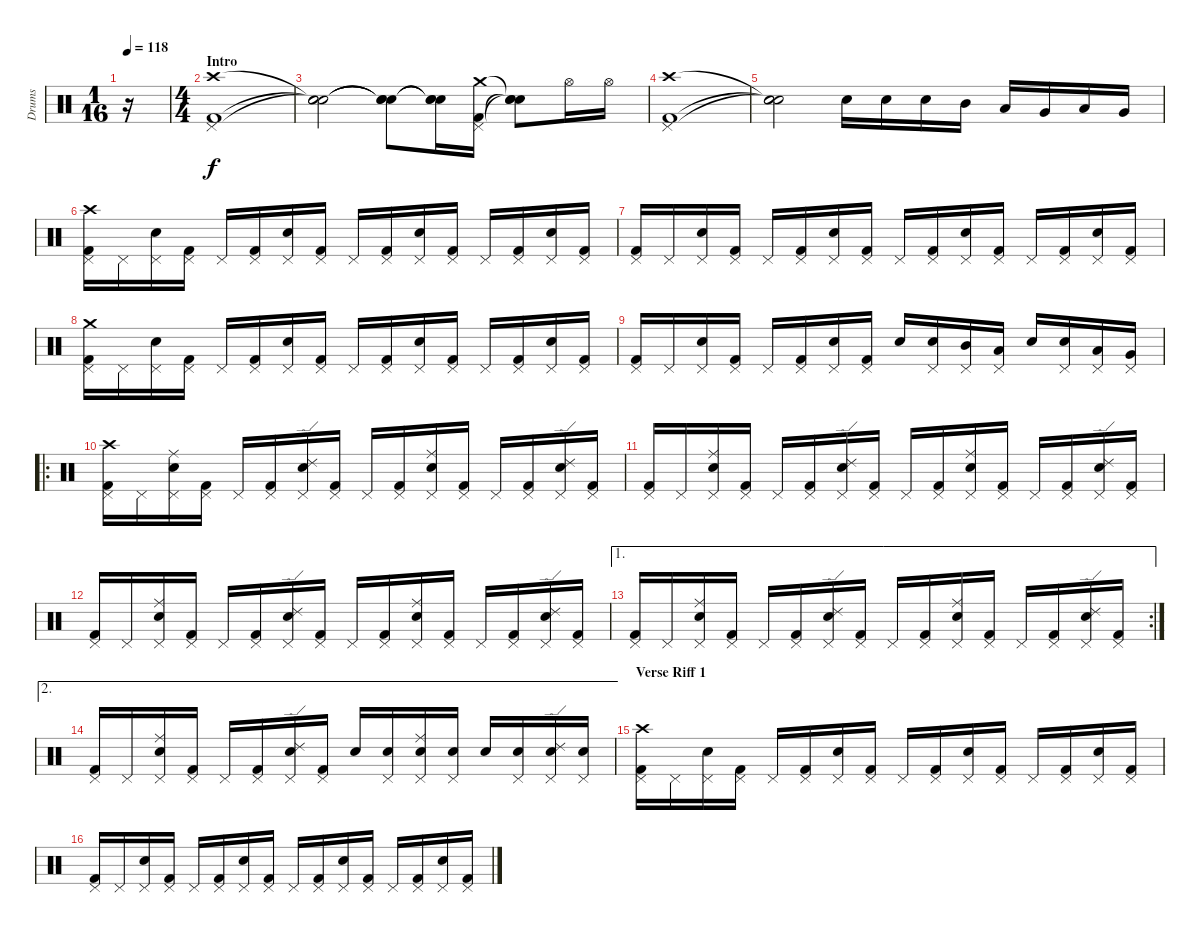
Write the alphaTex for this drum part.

\track ("Drums" "Drums") {instrument percussion}
\staff {score}
\articulation defaults
\ts (1 16)
\tempo 118
\clef neutral
\ks c
r.16{dy f} |
\ts (4 4)
\section ("" "Intro")
("Kick (hit) 2" "Pedal Hi-Hat (hit)" "Crash high (hit)").1 |
("Snare (hit)"{t} "Snare (hit)"{t} "Snare (hit)"{t}).2 ("Snare (hit)"{t} "Snare (hit)"{t} "Snare (hit)"{t}).8 ("Snare (hit)"{t} "Snare (hit)"{t} "Snare (hit)"{t}).16 ("Kick (hit) 2" "Pedal Hi-Hat (hit)" "Crash medium (hit)").16 ("Snare (hit)"{t} "Snare (hit)"{t} "Snare (hit)"{t}).8 "Hi-Hat (open)".16 "Hi-Hat (open)".16 |
("Kick (hit) 2" "Pedal Hi-Hat (hit)" "Crash high (hit)").1 |
("Snare (hit)"{t} "Snare (hit)"{t} "Snare (hit)"{t}).2 "Snare (hit) 2".16 "Snare (hit) 2".16 "Snare (hit) 2".16 "Mid Tom (hit)".16 "Low Tom (hit)".16 "Very Low Tom (hit)".16 "Low Floor Tom (hit)".16 "Very Low Tom (hit)".16 |
("Kick (hit) 2" "Pedal Hi-Hat (hit)" "Crash high (hit)").16 "Pedal Hi-Hat (hit)".16 ("Snare (hit) 2" "Pedal Hi-Hat (hit)").16 ("Kick (hit) 2" "Pedal Hi-Hat (hit)").16 "Pedal Hi-Hat (hit)".16 ("Kick (hit) 2" "Pedal Hi-Hat (hit)").16 ("Snare (hit) 2" "Pedal Hi-Hat (hit)").16 ("Kick (hit) 2" "Pedal Hi-Hat (hit)").16 "Pedal Hi-Hat (hit)".16 ("Kick (hit) 2" "Pedal Hi-Hat (hit)").16 ("Snare (hit) 2" "Pedal Hi-Hat (hit)").16 ("Kick (hit) 2" "Pedal Hi-Hat (hit)").16 "Pedal Hi-Hat (hit)".16 ("Kick (hit) 2" "Pedal Hi-Hat (hit)").16 ("Snare (hit) 2" "Pedal Hi-Hat (hit)").16 ("Kick (hit) 2" "Pedal Hi-Hat (hit)").16 |
("Kick (hit) 2" "Pedal Hi-Hat (hit)").16 "Pedal Hi-Hat (hit)".16 ("Snare (hit) 2" "Pedal Hi-Hat (hit)").16 ("Kick (hit) 2" "Pedal Hi-Hat (hit)").16 "Pedal Hi-Hat (hit)".16 ("Kick (hit) 2" "Pedal Hi-Hat (hit)").16 ("Snare (hit) 2" "Pedal Hi-Hat (hit)").16 ("Kick (hit) 2" "Pedal Hi-Hat (hit)").16 "Pedal Hi-Hat (hit)".16 ("Kick (hit) 2" "Pedal Hi-Hat (hit)").16 ("Snare (hit) 2" "Pedal Hi-Hat (hit)").16 ("Kick (hit) 2" "Pedal Hi-Hat (hit)").16 "Pedal Hi-Hat (hit)".16 ("Kick (hit) 2" "Pedal Hi-Hat (hit)").16 ("Snare (hit) 2" "Pedal Hi-Hat (hit)").16 ("Kick (hit) 2" "Pedal Hi-Hat (hit)").16 |
("Kick (hit) 2" "Pedal Hi-Hat (hit)" "Crash medium (hit)").16 "Pedal Hi-Hat (hit)".16 ("Snare (hit) 2" "Pedal Hi-Hat (hit)").16 ("Kick (hit) 2" "Pedal Hi-Hat (hit)").16 "Pedal Hi-Hat (hit)".16 ("Kick (hit) 2" "Pedal Hi-Hat (hit)").16 ("Snare (hit) 2" "Pedal Hi-Hat (hit)").16 ("Kick (hit) 2" "Pedal Hi-Hat (hit)").16 "Pedal Hi-Hat (hit)".16 ("Kick (hit) 2" "Pedal Hi-Hat (hit)").16 ("Snare (hit) 2" "Pedal Hi-Hat (hit)").16 ("Kick (hit) 2" "Pedal Hi-Hat (hit)").16 "Pedal Hi-Hat (hit)".16 ("Kick (hit) 2" "Pedal Hi-Hat (hit)").16 ("Snare (hit) 2" "Pedal Hi-Hat (hit)").16 ("Kick (hit) 2" "Pedal Hi-Hat (hit)").16 |
("Kick (hit) 2" "Pedal Hi-Hat (hit)").16 "Pedal Hi-Hat (hit)".16 ("Snare (hit) 2" "Pedal Hi-Hat (hit)").16 ("Kick (hit) 2" "Pedal Hi-Hat (hit)").16 "Pedal Hi-Hat (hit)".16 ("Kick (hit) 2" "Pedal Hi-Hat (hit)").16 ("Snare (hit) 2" "Pedal Hi-Hat (hit)").16 ("Kick (hit) 2" "Pedal Hi-Hat (hit)").16 "Snare (hit) 2".16 ("Snare (hit) 2" "Pedal Hi-Hat (hit)").16 ("Mid Tom (hit)" "Pedal Hi-Hat (hit)").16 ("Low Tom (hit)" "Pedal Hi-Hat (hit)").16 "Snare (hit) 2".16 ("Snare (hit) 2" "Pedal Hi-Hat (hit)").16 ("Low Tom (hit)" "Pedal Hi-Hat (hit)").16 ("Very Low Tom (hit)" "Pedal Hi-Hat (hit)").16 |
\ro
("Kick (hit) 2" "Pedal Hi-Hat (hit)" "Crash high (hit)").16 "Pedal Hi-Hat (hit)".16 ("Snare (hit) 2" "Pedal Hi-Hat (hit)" "Ride (middle)").16 ("Kick (hit) 2" "Pedal Hi-Hat (hit)").16 "Pedal Hi-Hat (hit)".16 ("Kick (hit) 2" "Pedal Hi-Hat (hit)").16 ("Snare (hit) 2" "Pedal Hi-Hat (hit)" "Ride (edge) 2").16 ("Kick (hit) 2" "Pedal Hi-Hat (hit)").16 "Pedal Hi-Hat (hit)".16 ("Kick (hit) 2" "Pedal Hi-Hat (hit)").16 ("Snare (hit) 2" "Pedal Hi-Hat (hit)" "Ride (middle)").16 ("Kick (hit) 2" "Pedal Hi-Hat (hit)").16 "Pedal Hi-Hat (hit)".16 ("Kick (hit) 2" "Pedal Hi-Hat (hit)").16 ("Snare (hit) 2" "Pedal Hi-Hat (hit)" "Ride (edge) 2").16 ("Kick (hit) 2" "Pedal Hi-Hat (hit)").16 |
("Kick (hit) 2" "Pedal Hi-Hat (hit)").16 "Pedal Hi-Hat (hit)".16 ("Snare (hit) 2" "Pedal Hi-Hat (hit)" "Ride (middle)").16 ("Kick (hit) 2" "Pedal Hi-Hat (hit)").16 "Pedal Hi-Hat (hit)".16 ("Kick (hit) 2" "Pedal Hi-Hat (hit)").16 ("Snare (hit) 2" "Pedal Hi-Hat (hit)" "Ride (edge) 2").16 ("Kick (hit) 2" "Pedal Hi-Hat (hit)").16 "Pedal Hi-Hat (hit)".16 ("Kick (hit) 2" "Pedal Hi-Hat (hit)").16 ("Snare (hit) 2" "Pedal Hi-Hat (hit)" "Ride (middle)").16 ("Kick (hit) 2" "Pedal Hi-Hat (hit)").16 "Pedal Hi-Hat (hit)".16 ("Kick (hit) 2" "Pedal Hi-Hat (hit)").16 ("Snare (hit) 2" "Pedal Hi-Hat (hit)" "Ride (edge) 2").16 ("Kick (hit) 2" "Pedal Hi-Hat (hit)").16 |
("Kick (hit) 2" "Pedal Hi-Hat (hit)").16 "Pedal Hi-Hat (hit)".16 ("Snare (hit) 2" "Pedal Hi-Hat (hit)" "Ride (middle)").16 ("Kick (hit) 2" "Pedal Hi-Hat (hit)").16 "Pedal Hi-Hat (hit)".16 ("Kick (hit) 2" "Pedal Hi-Hat (hit)").16 ("Snare (hit) 2" "Pedal Hi-Hat (hit)" "Ride (edge) 2").16 ("Kick (hit) 2" "Pedal Hi-Hat (hit)").16 "Pedal Hi-Hat (hit)".16 ("Kick (hit) 2" "Pedal Hi-Hat (hit)").16 ("Snare (hit) 2" "Pedal Hi-Hat (hit)" "Ride (middle)").16 ("Kick (hit) 2" "Pedal Hi-Hat (hit)").16 "Pedal Hi-Hat (hit)".16 ("Kick (hit) 2" "Pedal Hi-Hat (hit)").16 ("Snare (hit) 2" "Pedal Hi-Hat (hit)" "Ride (edge) 2").16 ("Kick (hit) 2" "Pedal Hi-Hat (hit)").16 |
\ae 1
\rc 2
("Kick (hit) 2" "Pedal Hi-Hat (hit)").16 "Pedal Hi-Hat (hit)".16 ("Snare (hit) 2" "Pedal Hi-Hat (hit)" "Ride (middle)").16 ("Kick (hit) 2" "Pedal Hi-Hat (hit)").16 "Pedal Hi-Hat (hit)".16 ("Kick (hit) 2" "Pedal Hi-Hat (hit)").16 ("Snare (hit) 2" "Pedal Hi-Hat (hit)" "Ride (edge) 2").16 ("Kick (hit) 2" "Pedal Hi-Hat (hit)").16 "Pedal Hi-Hat (hit)".16 ("Kick (hit) 2" "Pedal Hi-Hat (hit)").16 ("Snare (hit) 2" "Pedal Hi-Hat (hit)" "Ride (middle)").16 ("Kick (hit) 2" "Pedal Hi-Hat (hit)").16 "Pedal Hi-Hat (hit)".16 ("Kick (hit) 2" "Pedal Hi-Hat (hit)").16 ("Snare (hit) 2" "Pedal Hi-Hat (hit)" "Ride (edge) 2").16 ("Kick (hit) 2" "Pedal Hi-Hat (hit)").16 |
\ae 2
("Kick (hit) 2" "Pedal Hi-Hat (hit)").16 "Pedal Hi-Hat (hit)".16 ("Snare (hit) 2" "Pedal Hi-Hat (hit)" "Ride (middle)").16 ("Kick (hit) 2" "Pedal Hi-Hat (hit)").16 "Pedal Hi-Hat (hit)".16 ("Kick (hit) 2" "Pedal Hi-Hat (hit)").16 ("Snare (hit) 2" "Pedal Hi-Hat (hit)" "Ride (edge) 2").16 ("Kick (hit) 2" "Pedal Hi-Hat (hit)").16 "Snare (hit) 2".16 ("Snare (hit) 2" "Pedal Hi-Hat (hit)").16 ("Snare (hit) 2" "Pedal Hi-Hat (hit)" "Ride (middle)").16 ("Snare (hit) 2" "Pedal Hi-Hat (hit)").16 "Snare (hit) 2".16 ("Snare (hit) 2" "Pedal Hi-Hat (hit)").16 ("Snare (hit) 2" "Pedal Hi-Hat (hit)" "Ride (edge) 2").16 ("Snare (hit) 2" "Pedal Hi-Hat (hit)").16 |
\section ("" "Verse Riff 1")
("Kick (hit) 2" "Pedal Hi-Hat (hit)" "Crash high (hit)").16 "Pedal Hi-Hat (hit)".16 ("Snare (hit) 2" "Pedal Hi-Hat (hit)").16 ("Kick (hit) 2" "Pedal Hi-Hat (hit)").16 "Pedal Hi-Hat (hit)".16 ("Kick (hit) 2" "Pedal Hi-Hat (hit)").16 ("Snare (hit) 2" "Pedal Hi-Hat (hit)").16 ("Kick (hit) 2" "Pedal Hi-Hat (hit)").16 "Pedal Hi-Hat (hit)".16 ("Kick (hit) 2" "Pedal Hi-Hat (hit)").16 ("Snare (hit) 2" "Pedal Hi-Hat (hit)").16 ("Kick (hit) 2" "Pedal Hi-Hat (hit)").16 "Pedal Hi-Hat (hit)".16 ("Kick (hit) 2" "Pedal Hi-Hat (hit)").16 ("Snare (hit) 2" "Pedal Hi-Hat (hit)").16 ("Kick (hit) 2" "Pedal Hi-Hat (hit)").16 |
("Kick (hit) 2" "Pedal Hi-Hat (hit)").16 "Pedal Hi-Hat (hit)".16 ("Snare (hit) 2" "Pedal Hi-Hat (hit)").16 ("Kick (hit) 2" "Pedal Hi-Hat (hit)").16 "Pedal Hi-Hat (hit)".16 ("Kick (hit) 2" "Pedal Hi-Hat (hit)").16 ("Snare (hit) 2" "Pedal Hi-Hat (hit)").16 ("Kick (hit) 2" "Pedal Hi-Hat (hit)").16 "Pedal Hi-Hat (hit)".16 ("Kick (hit) 2" "Pedal Hi-Hat (hit)").16 ("Snare (hit) 2" "Pedal Hi-Hat (hit)").16 ("Kick (hit) 2" "Pedal Hi-Hat (hit)").16 "Pedal Hi-Hat (hit)".16 ("Kick (hit) 2" "Pedal Hi-Hat (hit)").16 ("Snare (hit) 2" "Pedal Hi-Hat (hit)").16 ("Kick (hit) 2" "Pedal Hi-Hat (hit)").16
